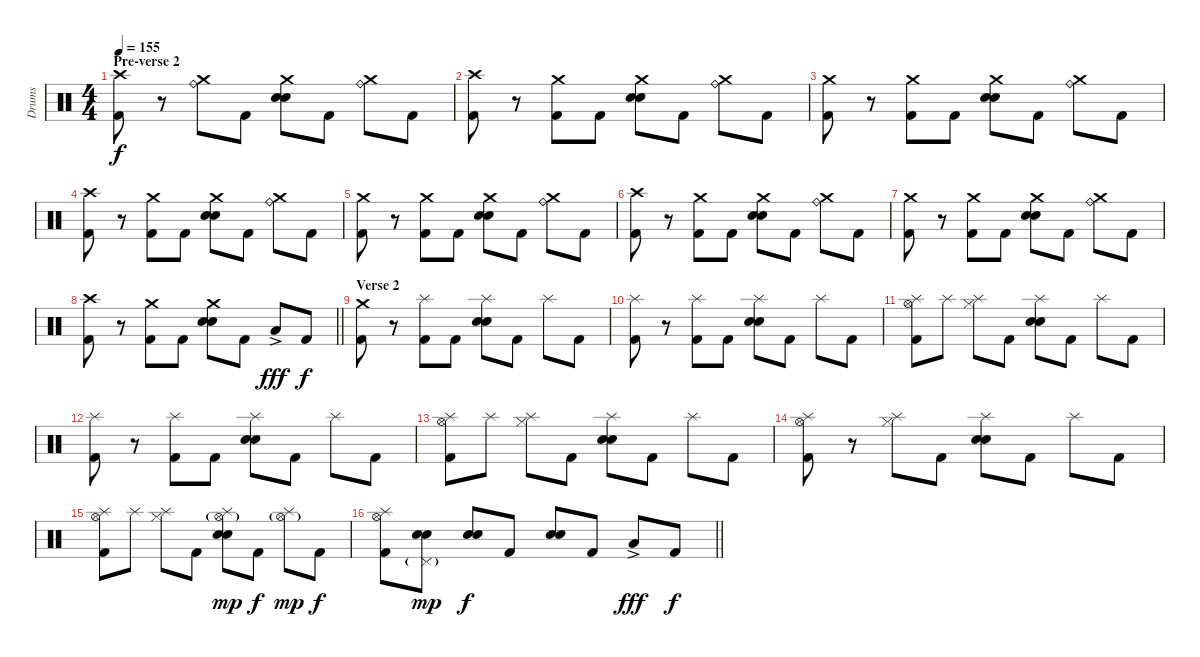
\track ("Drums" "Drums") {instrument percussion}
\staff {score}
\articulation defaults
\ts (4 4)
\section ("" "Pre-verse 2")
\tempo 155
\clef neutral
\ks c
("Crash high (hit)" "Kick (hit) 2").8{dy f} r.8 ("Crash medium (hit)" "Ride (bell)").8 "Kick (hit) 2".8 ("Crash medium (hit)" "Snare (hit) 2" "Electric Snare (hit)").8 "Kick (hit) 2".8 ("Crash medium (hit)" "Ride (bell)").8 "Kick (hit) 2".8 |
("Crash high (hit)" "Kick (hit) 2").8 r.8 ("Crash medium (hit)" "Kick (hit) 2").8 "Kick (hit) 2".8 ("Crash medium (hit)" "Snare (hit) 2" "Electric Snare (hit)").8 "Kick (hit) 2".8 ("Crash medium (hit)" "Ride (bell)").8 "Kick (hit) 2".8 |
("Crash medium (hit)" "Kick (hit) 2").8 r.8 ("Crash medium (hit)" "Kick (hit) 2").8 "Kick (hit) 2".8 ("Crash medium (hit)" "Snare (hit) 2" "Electric Snare (hit)").8 "Kick (hit) 2".8 ("Crash medium (hit)" "Ride (bell)").8 "Kick (hit) 2".8 |
("Crash high (hit)" "Kick (hit) 2").8 r.8 ("Crash medium (hit)" "Kick (hit) 2").8 "Kick (hit) 2".8 ("Crash medium (hit)" "Snare (hit) 2" "Electric Snare (hit)").8 "Kick (hit) 2".8 ("Crash medium (hit)" "Ride (bell)").8 "Kick (hit) 2".8 |
("Crash medium (hit)" "Kick (hit) 2").8 r.8 ("Crash medium (hit)" "Kick (hit) 2").8 "Kick (hit) 2".8 ("Crash medium (hit)" "Snare (hit) 2" "Electric Snare (hit)").8 "Kick (hit) 2".8 ("Crash medium (hit)" "Ride (bell)").8 "Kick (hit) 2".8 |
("Crash high (hit)" "Kick (hit) 2").8 r.8 ("Crash medium (hit)" "Kick (hit) 2").8 "Kick (hit) 2".8 ("Crash medium (hit)" "Snare (hit) 2" "Electric Snare (hit)").8 "Kick (hit) 2".8 ("Crash medium (hit)" "Ride (bell)").8 "Kick (hit) 2".8 |
("Crash medium (hit)" "Kick (hit) 2").8 r.8 ("Crash medium (hit)" "Kick (hit) 2").8 "Kick (hit) 2".8 ("Crash medium (hit)" "Snare (hit) 2" "Electric Snare (hit)").8 "Kick (hit) 2".8 ("Crash medium (hit)" "Ride (bell)").8 "Kick (hit) 2".8 |
\barLineRight lightlight
("Crash high (hit)" "Kick (hit) 2").8 r.8 ("Crash medium (hit)" "Kick (hit) 2").8 "Kick (hit) 2".8 ("Crash medium (hit)" "Snare (hit) 2" "Electric Snare (hit)").8 "Kick (hit) 2".8 "Low Floor Tom (hit)"{ac}.8{dy fff} "Kick (hit) 2".8{dy f} |
\section ("" "Verse 2")
("Crash medium (hit)" "Kick (hit) 2").8 r.8 ("Splash (hit)" "Kick (hit) 2").8 "Kick (hit) 2".8 ("Splash (hit)" "Snare (hit) 2" "Electric Snare (hit)").8 "Kick (hit) 2".8 "Splash (hit)".8 "Kick (hit) 2".8 |
("Splash (hit)" "Kick (hit) 2").8 r.8 ("Splash (hit)" "Kick (hit) 2").8 "Kick (hit) 2".8 ("Splash (hit)" "Snare (hit) 2" "Electric Snare (hit)").8 "Kick (hit) 2".8 "Splash (hit)".8 "Kick (hit) 2".8 |
("Splash (hit)" "Hi-Hat (open)" "Kick (hit) 2").8 "Splash (hit)".8 ("Splash (hit)" "Hi-Hat (closed)").8 "Kick (hit) 2".8 ("Splash (hit)" "Snare (hit) 2" "Electric Snare (hit)").8 "Kick (hit) 2".8 "Splash (hit)".8 "Kick (hit) 2".8 |
("Splash (hit)" "Kick (hit) 2").8 r.8 ("Splash (hit)" "Kick (hit) 2").8 "Kick (hit) 2".8 ("Splash (hit)" "Snare (hit) 2" "Electric Snare (hit)").8 "Kick (hit) 2".8 "Splash (hit)".8 "Kick (hit) 2".8 |
("Splash (hit)" "Hi-Hat (open)" "Kick (hit) 2").8 "Splash (hit)".8 ("Splash (hit)" "Hi-Hat (closed)").8 "Kick (hit) 2".8 ("Splash (hit)" "Snare (hit) 2" "Electric Snare (hit)").8 "Kick (hit) 2".8 "Splash (hit)".8 "Kick (hit) 2".8 |
("Splash (hit)" "Hi-Hat (open)" "Kick (hit) 2").8 r.8 ("Splash (hit)" "Hi-Hat (closed)").8 "Kick (hit) 2".8 ("Splash (hit)" "Snare (hit) 2" "Electric Snare (hit)").8 "Kick (hit) 2".8 "Splash (hit)".8 "Kick (hit) 2".8 |
("Splash (hit)" "Hi-Hat (open)" "Kick (hit) 2").8 "Splash (hit)".8 ("Splash (hit)" "Hi-Hat (closed)").8 "Kick (hit) 2".8 ("Splash (hit)" "Hi-Hat (open)"{g} "Snare (hit) 2" "Electric Snare (hit)").8{dy mp} "Kick (hit) 2".8{dy f} ("Splash (hit)" "Hi-Hat (open)"{g}).8{dy mp} "Kick (hit) 2".8{dy f} |
\barLineRight lightlight
("Splash (hit)" "Hi-Hat (open)" "Kick (hit) 2").8 ("Pedal Hi-Hat (hit)"{g} "Snare (hit) 2" "Electric Snare (hit)").8{dy mp} ("Snare (hit) 2" "Electric Snare (hit)").8{dy f} "Kick (hit) 2".8 ("Snare (hit) 2" "Electric Snare (hit)").8 "Kick (hit) 2".8 "Low Floor Tom (hit)"{ac}.8{dy fff} "Kick (hit) 2".8{dy f}
